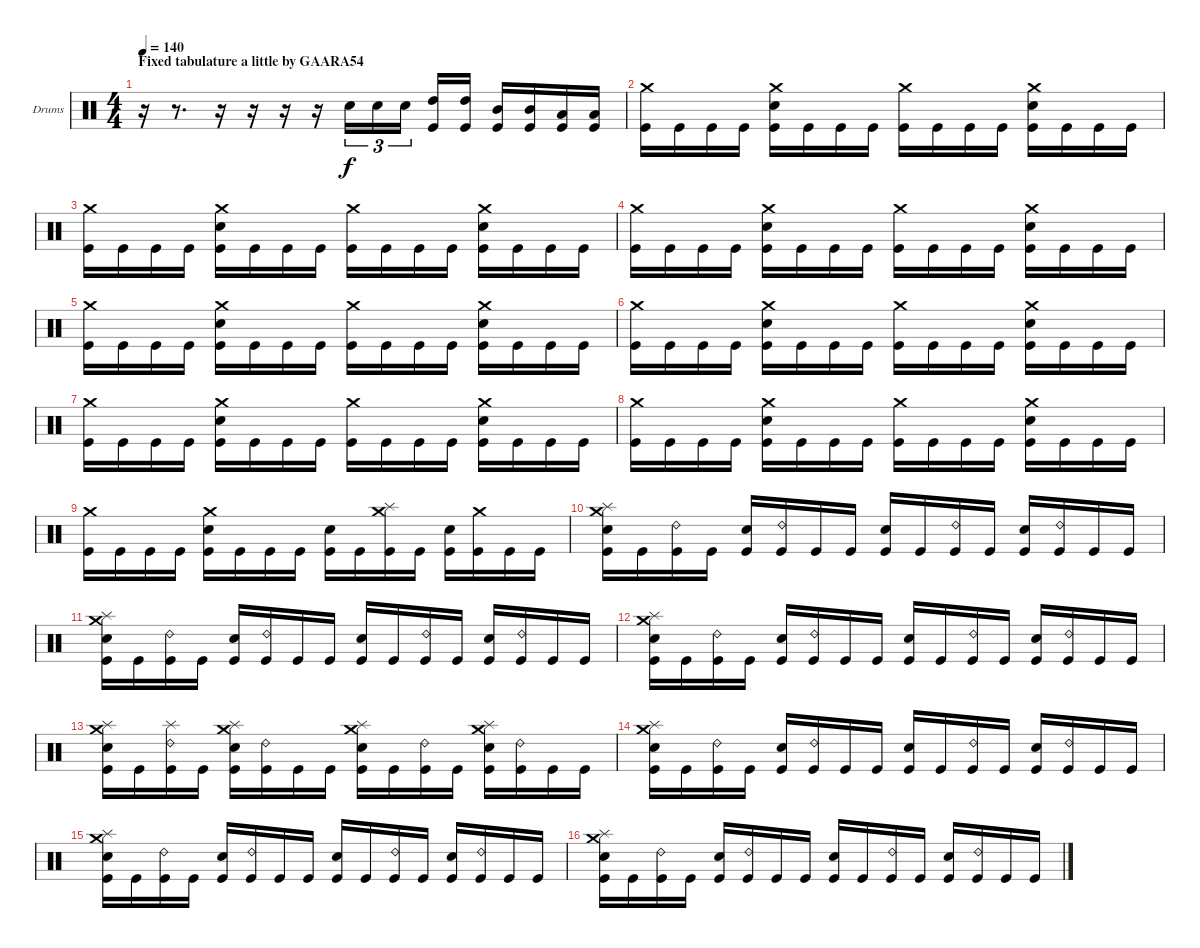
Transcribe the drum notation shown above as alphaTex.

\bracketExtendMode groupsimilarinstruments
\firstSystemTrackNameOrientation horizontal
\otherSystemsTrackNameOrientation horizontal
\track ("Drumkit" "Drums") {instrument percussion}
\staff {score}
\articulation defaults
\ts (4 4)
\section ("" "Fixed tabulature a little by GAARA54")
\tempo 140
\clef neutral
\ks c
r.16{dy f} r.8{d} r.16 r.16 r.16 r.16 "Snare (hit) 2".16{tu (3 2)} "Snare (hit) 2".16{tu (3 2)} "Snare (hit) 2".16{tu (3 2)} ("High Tom (hit)" "Kick (hit)").16 ("High Tom (hit)" "Kick (hit)").16 ("Mid Tom (hit)" "Kick (hit)").16 ("Mid Tom (hit)" "Kick (hit)").16 ("Low Tom (hit)" "Kick (hit)").16 ("Low Tom (hit)" "Kick (hit)").16 |
("Crash medium (hit)" "Kick (hit)").16 "Kick (hit)".16 "Kick (hit)".16 "Kick (hit)".16 ("Crash medium (hit)" "Snare (hit) 2" "Kick (hit)").16 "Kick (hit)".16 "Kick (hit)".16 "Kick (hit)".16 ("Crash medium (hit)" "Kick (hit)").16 "Kick (hit)".16 "Kick (hit)".16 "Kick (hit)".16 ("Crash medium (hit)" "Snare (hit) 2" "Kick (hit)").16 "Kick (hit)".16 "Kick (hit)".16 "Kick (hit)".16 |
("Crash medium (hit)" "Kick (hit)").16 "Kick (hit)".16 "Kick (hit)".16 "Kick (hit)".16 ("Crash medium (hit)" "Snare (hit) 2" "Kick (hit)").16 "Kick (hit)".16 "Kick (hit)".16 "Kick (hit)".16 ("Crash medium (hit)" "Kick (hit)").16 "Kick (hit)".16 "Kick (hit)".16 "Kick (hit)".16 ("Crash medium (hit)" "Snare (hit) 2" "Kick (hit)").16 "Kick (hit)".16 "Kick (hit)".16 "Kick (hit)".16 |
("Crash medium (hit)" "Kick (hit)").16 "Kick (hit)".16 "Kick (hit)".16 "Kick (hit)".16 ("Crash medium (hit)" "Snare (hit) 2" "Kick (hit)").16 "Kick (hit)".16 "Kick (hit)".16 "Kick (hit)".16 ("Crash medium (hit)" "Kick (hit)").16 "Kick (hit)".16 "Kick (hit)".16 "Kick (hit)".16 ("Crash medium (hit)" "Snare (hit) 2" "Kick (hit)").16 "Kick (hit)".16 "Kick (hit)".16 "Kick (hit)".16 |
("Crash medium (hit)" "Kick (hit)").16 "Kick (hit)".16 "Kick (hit)".16 "Kick (hit)".16 ("Crash medium (hit)" "Snare (hit) 2" "Kick (hit)").16 "Kick (hit)".16 "Kick (hit)".16 "Kick (hit)".16 ("Crash medium (hit)" "Kick (hit)").16 "Kick (hit)".16 "Kick (hit)".16 "Kick (hit)".16 ("Crash medium (hit)" "Snare (hit) 2" "Kick (hit)").16 "Kick (hit)".16 "Kick (hit)".16 "Kick (hit)".16 |
("Crash medium (hit)" "Kick (hit)").16 "Kick (hit)".16 "Kick (hit)".16 "Kick (hit)".16 ("Crash medium (hit)" "Snare (hit) 2" "Kick (hit)").16 "Kick (hit)".16 "Kick (hit)".16 "Kick (hit)".16 ("Crash medium (hit)" "Kick (hit)").16 "Kick (hit)".16 "Kick (hit)".16 "Kick (hit)".16 ("Crash medium (hit)" "Snare (hit) 2" "Kick (hit)").16 "Kick (hit)".16 "Kick (hit)".16 "Kick (hit)".16 |
("Crash medium (hit)" "Kick (hit)").16 "Kick (hit)".16 "Kick (hit)".16 "Kick (hit)".16 ("Crash medium (hit)" "Snare (hit) 2" "Kick (hit)").16 "Kick (hit)".16 "Kick (hit)".16 "Kick (hit)".16 ("Crash medium (hit)" "Kick (hit)").16 "Kick (hit)".16 "Kick (hit)".16 "Kick (hit)".16 ("Crash medium (hit)" "Snare (hit) 2" "Kick (hit)").16 "Kick (hit)".16 "Kick (hit)".16 "Kick (hit)".16 |
("Crash medium (hit)" "Kick (hit)").16 "Kick (hit)".16 "Kick (hit)".16 "Kick (hit)".16 ("Crash medium (hit)" "Snare (hit) 2" "Kick (hit)").16 "Kick (hit)".16 "Kick (hit)".16 "Kick (hit)".16 ("Crash medium (hit)" "Kick (hit)").16 "Kick (hit)".16 "Kick (hit)".16 "Kick (hit)".16 ("Crash medium (hit)" "Snare (hit) 2" "Kick (hit)").16 "Kick (hit)".16 "Kick (hit)".16 "Kick (hit)".16 |
("Crash medium (hit)" "Kick (hit)").16 "Kick (hit)".16 "Kick (hit)".16 "Kick (hit)".16 ("Crash medium (hit)" "Snare (hit) 2" "Kick (hit)").16 "Kick (hit)".16 "Kick (hit)".16 "Kick (hit)".16 ("Snare (hit) 2" "Kick (hit)").16 "Kick (hit)".16 ("Crash medium (hit)" "Splash (hit)" "Kick (hit)").16 "Kick (hit)".16 ("Snare (hit) 2" "Kick (hit)").16 ("Crash medium (hit)" "Kick (hit)").16 "Kick (hit)".16 "Kick (hit)".16 |
("Crash medium (hit)" "Splash (hit)" "Snare (hit) 2" "Kick (hit)").16 "Kick (hit)".16 ("Ride (bell) 2" "Kick (hit)").16 "Kick (hit)".16 ("Snare (hit) 2" "Kick (hit)").16 ("Ride (bell) 2" "Kick (hit)").16 "Kick (hit)".16 "Kick (hit)".16 ("Snare (hit) 2" "Kick (hit)").16 "Kick (hit)".16 ("Ride (bell) 2" "Kick (hit)").16 "Kick (hit)".16 ("Snare (hit) 2" "Kick (hit)").16 ("Ride (bell) 2" "Kick (hit)").16 "Kick (hit)".16 "Kick (hit)".16 |
("Crash medium (hit)" "Splash (hit)" "Snare (hit) 2" "Kick (hit)").16 "Kick (hit)".16 ("Ride (bell) 2" "Kick (hit)").16 "Kick (hit)".16 ("Snare (hit) 2" "Kick (hit)").16 ("Ride (bell) 2" "Kick (hit)").16 "Kick (hit)".16 "Kick (hit)".16 ("Snare (hit) 2" "Kick (hit)").16 "Kick (hit)".16 ("Ride (bell) 2" "Kick (hit)").16 "Kick (hit)".16 ("Snare (hit) 2" "Kick (hit)").16 ("Ride (bell) 2" "Kick (hit)").16 "Kick (hit)".16 "Kick (hit)".16 |
("Crash medium (hit)" "Splash (hit)" "Snare (hit) 2" "Kick (hit)").16 "Kick (hit)".16 ("Ride (bell) 2" "Kick (hit)").16 "Kick (hit)".16 ("Snare (hit) 2" "Kick (hit)").16 ("Ride (bell) 2" "Kick (hit)").16 "Kick (hit)".16 "Kick (hit)".16 ("Snare (hit) 2" "Kick (hit)").16 "Kick (hit)".16 ("Ride (bell) 2" "Kick (hit)").16 "Kick (hit)".16 ("Snare (hit) 2" "Kick (hit)").16 ("Ride (bell) 2" "Kick (hit)").16 "Kick (hit)".16 "Kick (hit)".16 |
("Crash medium (hit)" "Splash (hit)" "Snare (hit) 2" "Kick (hit)").16 "Kick (hit)".16 ("Splash (hit)" "Ride (bell) 2" "Kick (hit)").16 "Kick (hit)".16 ("Splash (hit)" "Crash medium (hit)" "Snare (hit) 2" "Kick (hit)").16 ("Ride (bell) 2" "Kick (hit)").16 "Kick (hit)".16 "Kick (hit)".16 ("Crash medium (hit)" "Splash (hit)" "Snare (hit) 2" "Kick (hit)").16 "Kick (hit)".16 ("Ride (bell) 2" "Kick (hit)").16 "Kick (hit)".16 ("Splash (hit)" "Crash medium (hit)" "Snare (hit) 2" "Kick (hit)").16 ("Ride (bell) 2" "Kick (hit)").16 "Kick (hit)".16 "Kick (hit)".16 |
("Crash medium (hit)" "Splash (hit)" "Snare (hit) 2" "Kick (hit)").16 "Kick (hit)".16 ("Ride (bell) 2" "Kick (hit)").16 "Kick (hit)".16 ("Snare (hit) 2" "Kick (hit)").16 ("Ride (bell) 2" "Kick (hit)").16 "Kick (hit)".16 "Kick (hit)".16 ("Snare (hit) 2" "Kick (hit)").16 "Kick (hit)".16 ("Ride (bell) 2" "Kick (hit)").16 "Kick (hit)".16 ("Snare (hit) 2" "Kick (hit)").16 ("Ride (bell) 2" "Kick (hit)").16 "Kick (hit)".16 "Kick (hit)".16 |
("Crash medium (hit)" "Splash (hit)" "Snare (hit) 2" "Kick (hit)").16 "Kick (hit)".16 ("Ride (bell) 2" "Kick (hit)").16 "Kick (hit)".16 ("Snare (hit) 2" "Kick (hit)").16 ("Ride (bell) 2" "Kick (hit)").16 "Kick (hit)".16 "Kick (hit)".16 ("Snare (hit) 2" "Kick (hit)").16 "Kick (hit)".16 ("Ride (bell) 2" "Kick (hit)").16 "Kick (hit)".16 ("Snare (hit) 2" "Kick (hit)").16 ("Ride (bell) 2" "Kick (hit)").16 "Kick (hit)".16 "Kick (hit)".16 |
("Crash medium (hit)" "Splash (hit)" "Snare (hit) 2" "Kick (hit)").16 "Kick (hit)".16 ("Ride (bell) 2" "Kick (hit)").16 "Kick (hit)".16 ("Snare (hit) 2" "Kick (hit)").16 ("Ride (bell) 2" "Kick (hit)").16 "Kick (hit)".16 "Kick (hit)".16 ("Snare (hit) 2" "Kick (hit)").16 "Kick (hit)".16 ("Ride (bell) 2" "Kick (hit)").16 "Kick (hit)".16 ("Snare (hit) 2" "Kick (hit)").16 ("Ride (bell) 2" "Kick (hit)").16 "Kick (hit)".16 "Kick (hit)".16
